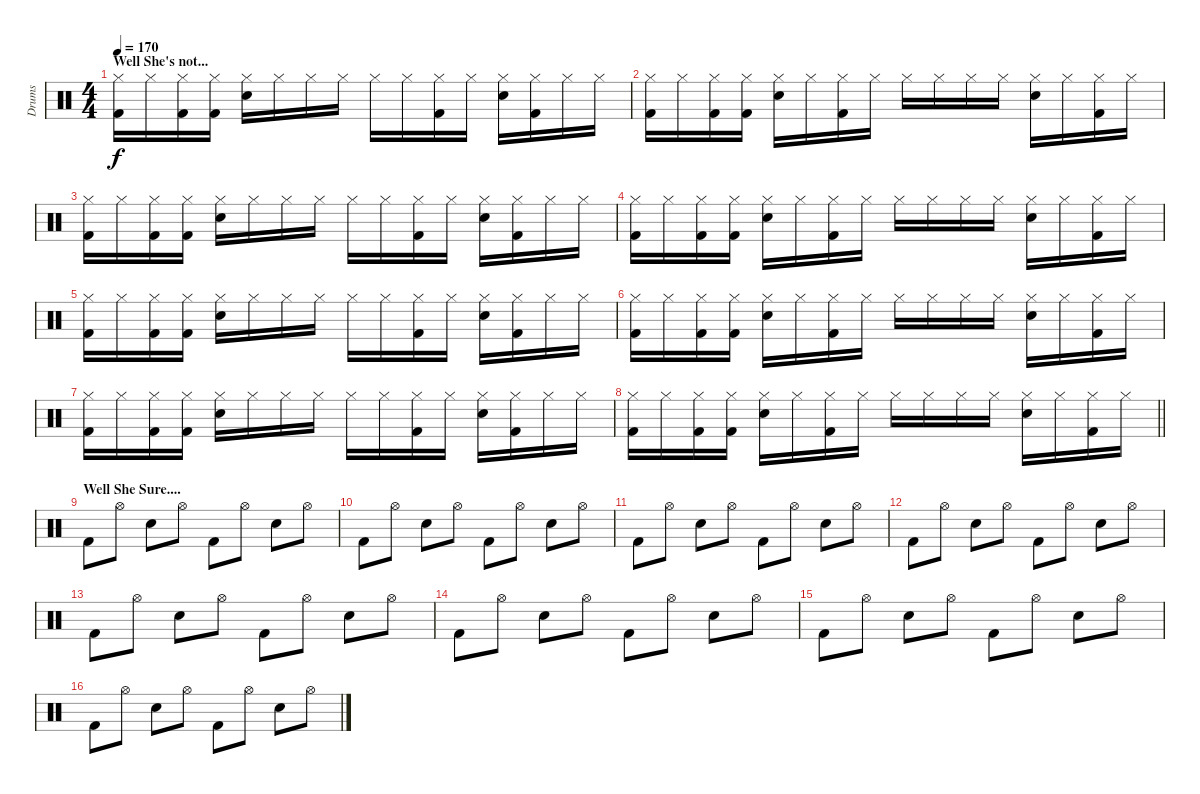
\track ("Drums" "Drums") {instrument percussion}
\staff {score}
\articulation defaults
\ts (4 4)
\section ("" "Well She's not...")
\tempo 170
\clef neutral
\ks c
("Hi-Hat (closed)" "Kick (hit) 2").16{dy f} "Hi-Hat (closed)".16 ("Hi-Hat (closed)" "Kick (hit) 2").16 ("Hi-Hat (closed)" "Kick (hit) 2").16 ("Hi-Hat (closed)" "Electric Snare (hit)").16 "Hi-Hat (closed)".16 "Hi-Hat (closed)".16 "Hi-Hat (closed)".16 "Hi-Hat (closed)".16 "Hi-Hat (closed)".16 ("Hi-Hat (closed)" "Kick (hit) 2").16 "Hi-Hat (closed)".16 ("Hi-Hat (closed)" "Electric Snare (hit)").16 ("Hi-Hat (closed)" "Kick (hit) 2").16 "Hi-Hat (closed)".16 "Hi-Hat (closed)".16 |
("Hi-Hat (closed)" "Kick (hit) 2").16 "Hi-Hat (closed)".16 ("Hi-Hat (closed)" "Kick (hit) 2").16 ("Hi-Hat (closed)" "Kick (hit) 2").16 ("Hi-Hat (closed)" "Electric Snare (hit)").16 "Hi-Hat (closed)".16 ("Hi-Hat (closed)" "Kick (hit) 2").16 "Hi-Hat (closed)".16 "Hi-Hat (closed)".16 "Hi-Hat (closed)".16 "Hi-Hat (closed)".16 "Hi-Hat (closed)".16 ("Hi-Hat (closed)" "Electric Snare (hit)").16 "Hi-Hat (closed)".16 ("Hi-Hat (closed)" "Kick (hit) 2").16 "Hi-Hat (closed)".16 |
("Hi-Hat (closed)" "Kick (hit) 2").16 "Hi-Hat (closed)".16 ("Hi-Hat (closed)" "Kick (hit) 2").16 ("Hi-Hat (closed)" "Kick (hit) 2").16 ("Hi-Hat (closed)" "Electric Snare (hit)").16 "Hi-Hat (closed)".16 "Hi-Hat (closed)".16 "Hi-Hat (closed)".16 "Hi-Hat (closed)".16 "Hi-Hat (closed)".16 ("Hi-Hat (closed)" "Kick (hit) 2").16 "Hi-Hat (closed)".16 ("Hi-Hat (closed)" "Electric Snare (hit)").16 ("Hi-Hat (closed)" "Kick (hit) 2").16 "Hi-Hat (closed)".16 "Hi-Hat (closed)".16 |
("Hi-Hat (closed)" "Kick (hit) 2").16 "Hi-Hat (closed)".16 ("Hi-Hat (closed)" "Kick (hit) 2").16 ("Hi-Hat (closed)" "Kick (hit) 2").16 ("Hi-Hat (closed)" "Electric Snare (hit)").16 "Hi-Hat (closed)".16 ("Hi-Hat (closed)" "Kick (hit) 2").16 "Hi-Hat (closed)".16 "Hi-Hat (closed)".16 "Hi-Hat (closed)".16 "Hi-Hat (closed)".16 "Hi-Hat (closed)".16 ("Hi-Hat (closed)" "Electric Snare (hit)").16 "Hi-Hat (closed)".16 ("Hi-Hat (closed)" "Kick (hit) 2").16 "Hi-Hat (closed)".16 |
("Hi-Hat (closed)" "Kick (hit) 2").16 "Hi-Hat (closed)".16 ("Hi-Hat (closed)" "Kick (hit) 2").16 ("Hi-Hat (closed)" "Kick (hit) 2").16 ("Hi-Hat (closed)" "Electric Snare (hit)").16 "Hi-Hat (closed)".16 "Hi-Hat (closed)".16 "Hi-Hat (closed)".16 "Hi-Hat (closed)".16 "Hi-Hat (closed)".16 ("Hi-Hat (closed)" "Kick (hit) 2").16 "Hi-Hat (closed)".16 ("Hi-Hat (closed)" "Electric Snare (hit)").16 ("Hi-Hat (closed)" "Kick (hit) 2").16 "Hi-Hat (closed)".16 "Hi-Hat (closed)".16 |
("Hi-Hat (closed)" "Kick (hit) 2").16 "Hi-Hat (closed)".16 ("Hi-Hat (closed)" "Kick (hit) 2").16 ("Hi-Hat (closed)" "Kick (hit) 2").16 ("Hi-Hat (closed)" "Electric Snare (hit)").16 "Hi-Hat (closed)".16 ("Hi-Hat (closed)" "Kick (hit) 2").16 "Hi-Hat (closed)".16 "Hi-Hat (closed)".16 "Hi-Hat (closed)".16 "Hi-Hat (closed)".16 "Hi-Hat (closed)".16 ("Hi-Hat (closed)" "Electric Snare (hit)").16 "Hi-Hat (closed)".16 ("Hi-Hat (closed)" "Kick (hit) 2").16 "Hi-Hat (closed)".16 |
("Hi-Hat (closed)" "Kick (hit) 2").16 "Hi-Hat (closed)".16 ("Hi-Hat (closed)" "Kick (hit) 2").16 ("Hi-Hat (closed)" "Kick (hit) 2").16 ("Hi-Hat (closed)" "Electric Snare (hit)").16 "Hi-Hat (closed)".16 "Hi-Hat (closed)".16 "Hi-Hat (closed)".16 "Hi-Hat (closed)".16 "Hi-Hat (closed)".16 ("Hi-Hat (closed)" "Kick (hit) 2").16 "Hi-Hat (closed)".16 ("Hi-Hat (closed)" "Electric Snare (hit)").16 ("Hi-Hat (closed)" "Kick (hit) 2").16 "Hi-Hat (closed)".16 "Hi-Hat (closed)".16 |
\barLineRight lightlight
("Hi-Hat (closed)" "Kick (hit) 2").16 "Hi-Hat (closed)".16 ("Hi-Hat (closed)" "Kick (hit) 2").16 ("Hi-Hat (closed)" "Kick (hit) 2").16 ("Hi-Hat (closed)" "Electric Snare (hit)").16 "Hi-Hat (closed)".16 ("Hi-Hat (closed)" "Kick (hit) 2").16 "Hi-Hat (closed)".16 "Hi-Hat (closed)".16 "Hi-Hat (closed)".16 "Hi-Hat (closed)".16 "Hi-Hat (closed)".16 ("Hi-Hat (closed)" "Electric Snare (hit)").16 "Hi-Hat (closed)".16 ("Hi-Hat (closed)" "Kick (hit) 2").16 "Hi-Hat (closed)".16 |
\section ("" "Well She Sure....")
"Kick (hit) 2".8 "Hi-Hat (open)".8 "Electric Snare (hit)".8 "Hi-Hat (open)".8 "Kick (hit) 2".8 "Hi-Hat (open)".8 "Electric Snare (hit)".8 "Hi-Hat (open)".8 |
"Kick (hit) 2".8 "Hi-Hat (open)".8 "Electric Snare (hit)".8 "Hi-Hat (open)".8 "Kick (hit) 2".8 "Hi-Hat (open)".8 "Electric Snare (hit)".8 "Hi-Hat (open)".8 |
"Kick (hit) 2".8 "Hi-Hat (open)".8 "Electric Snare (hit)".8 "Hi-Hat (open)".8 "Kick (hit) 2".8 "Hi-Hat (open)".8 "Electric Snare (hit)".8 "Hi-Hat (open)".8 |
"Kick (hit) 2".8 "Hi-Hat (open)".8 "Electric Snare (hit)".8 "Hi-Hat (open)".8 "Kick (hit) 2".8 "Hi-Hat (open)".8 "Electric Snare (hit)".8 "Hi-Hat (open)".8 |
"Kick (hit) 2".8 "Hi-Hat (open)".8 "Electric Snare (hit)".8 "Hi-Hat (open)".8 "Kick (hit) 2".8 "Hi-Hat (open)".8 "Electric Snare (hit)".8 "Hi-Hat (open)".8 |
"Kick (hit) 2".8 "Hi-Hat (open)".8 "Electric Snare (hit)".8 "Hi-Hat (open)".8 "Kick (hit) 2".8 "Hi-Hat (open)".8 "Electric Snare (hit)".8 "Hi-Hat (open)".8 |
"Kick (hit) 2".8 "Hi-Hat (open)".8 "Electric Snare (hit)".8 "Hi-Hat (open)".8 "Kick (hit) 2".8 "Hi-Hat (open)".8 "Electric Snare (hit)".8 "Hi-Hat (open)".8 |
"Kick (hit) 2".8 "Hi-Hat (open)".8 "Electric Snare (hit)".8 "Hi-Hat (open)".8 "Kick (hit) 2".8 "Hi-Hat (open)".8 "Electric Snare (hit)".8 "Hi-Hat (open)".8
